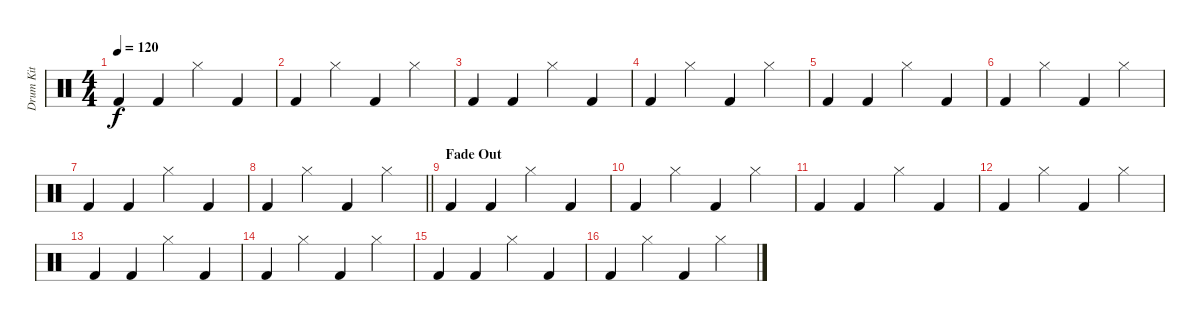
\track ("Drum Kit" "Drum Kit") {instrument percussion}
\staff {score}
\articulation defaults
\ts (4 4)
\tempo 120
\clef neutral
\ks c "Kick (hit) 2".4{dy f} "Kick (hit) 2".4 "Hi-Hat (closed)".4 "Kick (hit) 2".4
|
"Kick (hit) 2".4 "Hi-Hat (closed)".4 "Kick (hit) 2".4 "Hi-Hat (closed)".4 |
"Kick (hit) 2".4 "Kick (hit) 2".4 "Hi-Hat (closed)".4 "Kick (hit) 2".4 |
"Kick (hit) 2".4 "Hi-Hat (closed)".4 "Kick (hit) 2".4 "Hi-Hat (closed)".4 |
"Kick (hit) 2".4 "Kick (hit) 2".4 "Hi-Hat (closed)".4 "Kick (hit) 2".4 |
"Kick (hit) 2".4 "Hi-Hat (closed)".4 "Kick (hit) 2".4 "Hi-Hat (closed)".4 |
"Kick (hit) 2".4 "Kick (hit) 2".4 "Hi-Hat (closed)".4 "Kick (hit) 2".4 |
\barLineRight lightlight "Kick (hit) 2".4 "Hi-Hat (closed)".4 "Kick (hit) 2".4 "Hi-Hat (closed)".4
|
\section ("" "Fade Out")
"Kick (hit) 2".4 "Kick (hit) 2".4 "Hi-Hat (closed)".4 "Kick (hit) 2".4 |
"Kick (hit) 2".4 "Hi-Hat (closed)".4 "Kick (hit) 2".4 "Hi-Hat (closed)".4 |
"Kick (hit) 2".4 "Kick (hit) 2".4 "Hi-Hat (closed)".4 "Kick (hit) 2".4 |
"Kick (hit) 2".4 "Hi-Hat (closed)".4 "Kick (hit) 2".4 "Hi-Hat (closed)".4 |
"Kick (hit) 2".4 "Kick (hit) 2".4 "Hi-Hat (closed)".4 "Kick (hit) 2".4 |
"Kick (hit) 2".4 "Hi-Hat (closed)".4 "Kick (hit) 2".4 "Hi-Hat (closed)".4 |
"Kick (hit) 2".4 "Kick (hit) 2".4 "Hi-Hat (closed)".4 "Kick (hit) 2".4 |
"Kick (hit) 2".4 "Hi-Hat (closed)".4 "Kick (hit) 2".4 "Hi-Hat (closed)".4
